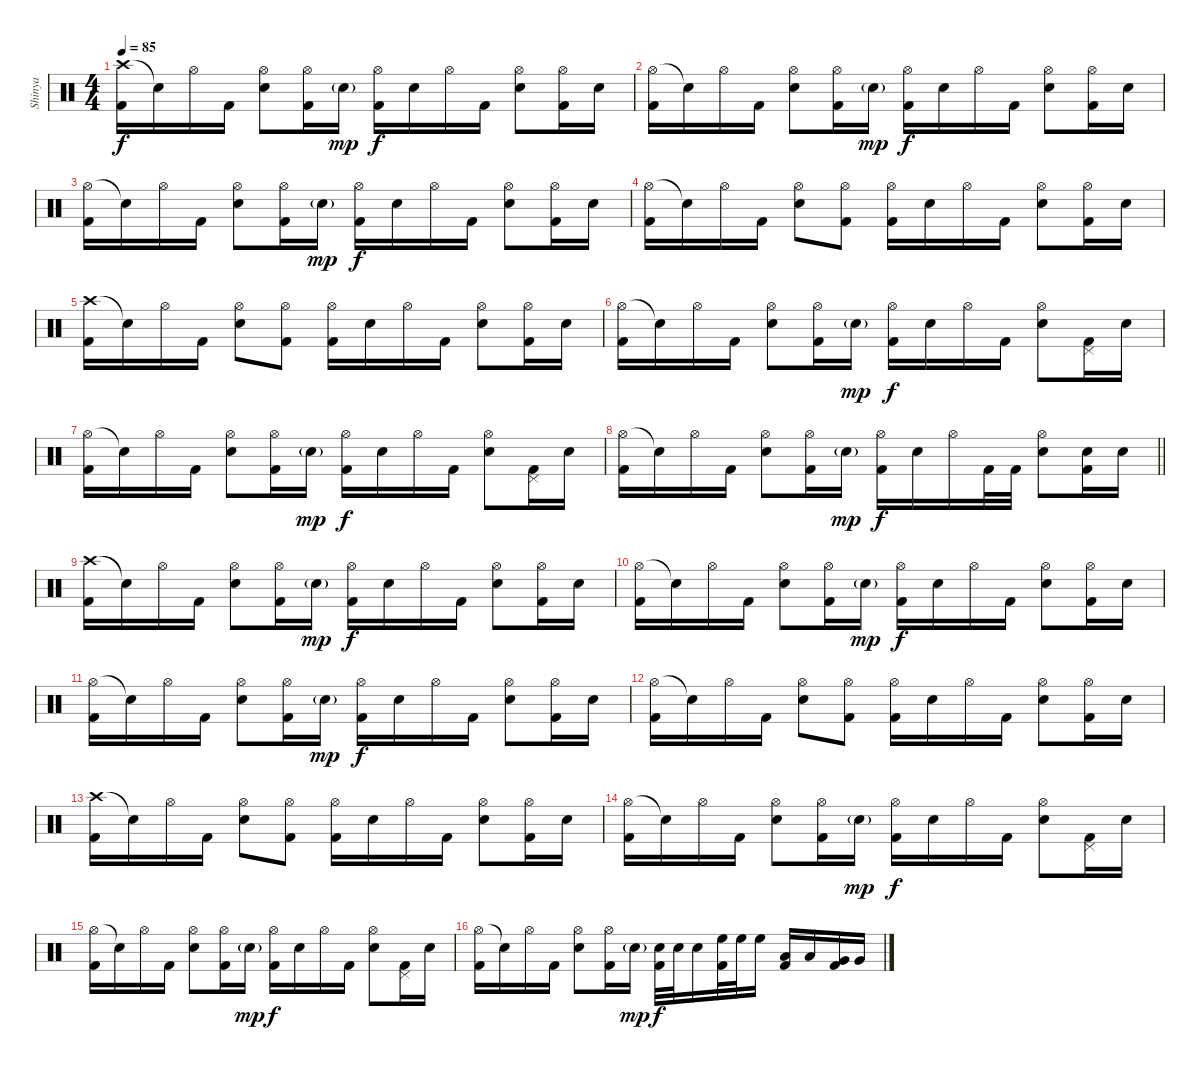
\track ("Shinya" "Shinya") {instrument percussion}
\staff {score}
\articulation defaults
\ts (4 4)
\tempo 85
\clef neutral
\ks c
("Crash high (hit)" "Kick (hit) 2").16{dy f} "Snare (hit)"{t}.16 "Hi-Hat (open)".16 "Kick (hit) 2".16 ("Hi-Hat (open)" "Electric Snare (hit)").8 ("Hi-Hat (open)" "Kick (hit) 2").16 "Electric Snare (hit)"{g}.16{dy mp} ("Hi-Hat (open)" "Kick (hit) 2").16{dy f} "Electric Snare (hit)".16 "Hi-Hat (open)".16 "Kick (hit) 2".16 ("Hi-Hat (open)" "Electric Snare (hit)").8 ("Hi-Hat (open)" "Kick (hit) 2").16 "Electric Snare (hit)".16 |
("Hi-Hat (open)" "Kick (hit) 2").16 "Snare (hit)"{t}.16 "Hi-Hat (open)".16 "Kick (hit) 2".16 ("Hi-Hat (open)" "Electric Snare (hit)").8 ("Hi-Hat (open)" "Kick (hit) 2").16 "Electric Snare (hit)"{g}.16{dy mp} ("Hi-Hat (open)" "Kick (hit) 2").16{dy f} "Electric Snare (hit)".16 "Hi-Hat (open)".16 "Kick (hit) 2".16 ("Hi-Hat (open)" "Electric Snare (hit)").8 ("Hi-Hat (open)" "Kick (hit) 2").16 "Electric Snare (hit)".16 |
("Hi-Hat (open)" "Kick (hit) 2").16 "Snare (hit)"{t}.16 "Hi-Hat (open)".16 "Kick (hit) 2".16 ("Hi-Hat (open)" "Electric Snare (hit)").8 ("Hi-Hat (open)" "Kick (hit) 2").16 "Electric Snare (hit)"{g}.16{dy mp} ("Hi-Hat (open)" "Kick (hit) 2").16{dy f} "Electric Snare (hit)".16 "Hi-Hat (open)".16 "Kick (hit) 2".16 ("Hi-Hat (open)" "Electric Snare (hit)").8 ("Hi-Hat (open)" "Kick (hit) 2").16 "Electric Snare (hit)".16 |
("Hi-Hat (open)" "Kick (hit) 2").16 "Snare (hit)"{t}.16 "Hi-Hat (open)".16 "Kick (hit) 2".16 ("Hi-Hat (open)" "Electric Snare (hit)").8 ("Hi-Hat (open)" "Kick (hit) 2").8 ("Hi-Hat (open)" "Kick (hit) 2").16 "Electric Snare (hit)".16 "Hi-Hat (open)".16 "Kick (hit) 2".16 ("Hi-Hat (open)" "Electric Snare (hit)").8 ("Hi-Hat (open)" "Kick (hit) 2").16 "Electric Snare (hit)".16 |
("Crash high (hit)" "Kick (hit) 2").16 "Snare (hit)"{t}.16 "Hi-Hat (open)".16 "Kick (hit) 2".16 ("Hi-Hat (open)" "Electric Snare (hit)").8 ("Hi-Hat (open)" "Kick (hit) 2").8 ("Hi-Hat (open)" "Kick (hit) 2").16 "Electric Snare (hit)".16 "Hi-Hat (open)".16 "Kick (hit) 2".16 ("Hi-Hat (open)" "Electric Snare (hit)").8 ("Hi-Hat (open)" "Kick (hit) 2").16 "Electric Snare (hit)".16 |
("Hi-Hat (open)" "Kick (hit) 2").16 "Snare (hit)"{t}.16 "Hi-Hat (open)".16 "Kick (hit) 2".16 ("Hi-Hat (open)" "Electric Snare (hit)").8 ("Hi-Hat (open)" "Kick (hit) 2").16 "Electric Snare (hit)"{g}.16{dy mp} ("Hi-Hat (open)" "Kick (hit) 2").16{dy f} "Electric Snare (hit)".16 "Hi-Hat (open)".16 "Kick (hit) 2".16 ("Hi-Hat (open)" "Electric Snare (hit)").8 ("Pedal Hi-Hat (hit)" "Kick (hit) 2").16 "Electric Snare (hit)".16 |
("Hi-Hat (open)" "Kick (hit) 2").16 "Snare (hit)"{t}.16 "Hi-Hat (open)".16 "Kick (hit) 2".16 ("Hi-Hat (open)" "Electric Snare (hit)").8 ("Hi-Hat (open)" "Kick (hit) 2").16 "Electric Snare (hit)"{g}.16{dy mp} ("Hi-Hat (open)" "Kick (hit) 2").16{dy f} "Electric Snare (hit)".16 "Hi-Hat (open)".16 "Kick (hit) 2".16 ("Hi-Hat (open)" "Electric Snare (hit)").8 ("Pedal Hi-Hat (hit)" "Kick (hit) 2").16 "Electric Snare (hit)".16 |
\barLineRight lightlight
("Hi-Hat (open)" "Kick (hit) 2").16 "Snare (hit)"{t}.16 "Hi-Hat (open)".16 "Kick (hit) 2".16 ("Hi-Hat (open)" "Electric Snare (hit)").8 ("Hi-Hat (open)" "Kick (hit) 2").16 "Electric Snare (hit)"{g}.16{dy mp} ("Hi-Hat (open)" "Kick (hit) 2").16{dy f} "Electric Snare (hit)".16 "Hi-Hat (open)".16 "Kick (hit) 2".32 "Kick (hit) 2".32 ("Hi-Hat (open)" "Electric Snare (hit)").8 ("Electric Snare (hit)" "Kick (hit) 2").16 "Electric Snare (hit)".16 |
("Crash high (hit)" "Kick (hit) 2").16 "Snare (hit)"{t}.16 "Hi-Hat (open)".16 "Kick (hit) 2".16 ("Hi-Hat (open)" "Electric Snare (hit)").8 ("Hi-Hat (open)" "Kick (hit) 2").16 "Electric Snare (hit)"{g}.16{dy mp} ("Hi-Hat (open)" "Kick (hit) 2").16{dy f} "Electric Snare (hit)".16 "Hi-Hat (open)".16 "Kick (hit) 2".16 ("Hi-Hat (open)" "Electric Snare (hit)").8 ("Hi-Hat (open)" "Kick (hit) 2").16 "Electric Snare (hit)".16 |
("Hi-Hat (open)" "Kick (hit) 2").16 "Snare (hit)"{t}.16 "Hi-Hat (open)".16 "Kick (hit) 2".16 ("Hi-Hat (open)" "Electric Snare (hit)").8 ("Hi-Hat (open)" "Kick (hit) 2").16 "Electric Snare (hit)"{g}.16{dy mp} ("Hi-Hat (open)" "Kick (hit) 2").16{dy f} "Electric Snare (hit)".16 "Hi-Hat (open)".16 "Kick (hit) 2".16 ("Hi-Hat (open)" "Electric Snare (hit)").8 ("Hi-Hat (open)" "Kick (hit) 2").16 "Electric Snare (hit)".16 |
("Hi-Hat (open)" "Kick (hit) 2").16 "Snare (hit)"{t}.16 "Hi-Hat (open)".16 "Kick (hit) 2".16 ("Hi-Hat (open)" "Electric Snare (hit)").8 ("Hi-Hat (open)" "Kick (hit) 2").16 "Electric Snare (hit)"{g}.16{dy mp} ("Hi-Hat (open)" "Kick (hit) 2").16{dy f} "Electric Snare (hit)".16 "Hi-Hat (open)".16 "Kick (hit) 2".16 ("Hi-Hat (open)" "Electric Snare (hit)").8 ("Hi-Hat (open)" "Kick (hit) 2").16 "Electric Snare (hit)".16 |
("Hi-Hat (open)" "Kick (hit) 2").16 "Snare (hit)"{t}.16 "Hi-Hat (open)".16 "Kick (hit) 2".16 ("Hi-Hat (open)" "Electric Snare (hit)").8 ("Hi-Hat (open)" "Kick (hit) 2").8 ("Hi-Hat (open)" "Kick (hit) 2").16 "Electric Snare (hit)".16 "Hi-Hat (open)".16 "Kick (hit) 2".16 ("Hi-Hat (open)" "Electric Snare (hit)").8 ("Hi-Hat (open)" "Kick (hit) 2").16 "Electric Snare (hit)".16 |
("Crash high (hit)" "Kick (hit) 2").16 "Snare (hit)"{t}.16 "Hi-Hat (open)".16 "Kick (hit) 2".16 ("Hi-Hat (open)" "Electric Snare (hit)").8 ("Hi-Hat (open)" "Kick (hit) 2").8 ("Hi-Hat (open)" "Kick (hit) 2").16 "Electric Snare (hit)".16 "Hi-Hat (open)".16 "Kick (hit) 2".16 ("Hi-Hat (open)" "Electric Snare (hit)").8 ("Hi-Hat (open)" "Kick (hit) 2").16 "Electric Snare (hit)".16 |
("Hi-Hat (open)" "Kick (hit) 2").16 "Snare (hit)"{t}.16 "Hi-Hat (open)".16 "Kick (hit) 2".16 ("Hi-Hat (open)" "Electric Snare (hit)").8 ("Hi-Hat (open)" "Kick (hit) 2").16 "Electric Snare (hit)"{g}.16{dy mp} ("Hi-Hat (open)" "Kick (hit) 2").16{dy f} "Electric Snare (hit)".16 "Hi-Hat (open)".16 "Kick (hit) 2".16 ("Hi-Hat (open)" "Electric Snare (hit)").8 ("Pedal Hi-Hat (hit)" "Kick (hit) 2").16 "Electric Snare (hit)".16 |
("Hi-Hat (open)" "Kick (hit) 2").16 "Snare (hit)"{t}.16 "Hi-Hat (open)".16 "Kick (hit) 2".16 ("Hi-Hat (open)" "Electric Snare (hit)").8 ("Hi-Hat (open)" "Kick (hit) 2").16 "Electric Snare (hit)"{g}.16{dy mp} ("Hi-Hat (open)" "Kick (hit) 2").16{dy f} "Electric Snare (hit)".16 "Hi-Hat (open)".16 "Kick (hit) 2".16 ("Hi-Hat (open)" "Electric Snare (hit)").8 ("Pedal Hi-Hat (hit)" "Kick (hit) 2").16 "Electric Snare (hit)".16 |
("Hi-Hat (open)" "Kick (hit) 2").16 "Snare (hit)"{t}.16 "Hi-Hat (open)".16 "Kick (hit) 2".16 ("Hi-Hat (open)" "Electric Snare (hit)").8 ("Hi-Hat (open)" "Kick (hit) 2").16 "Electric Snare (hit)"{g}.16{dy mp} ("Electric Snare (hit)" "Kick (hit) 2").32{dy f} "Electric Snare (hit)".32 "Electric Snare (hit)".16 ("High Floor Tom (hit)" "Kick (hit) 2").32 "High Floor Tom (hit)".32 "High Floor Tom (hit)".16 ("Low Tom (hit)" "Kick (hit) 2").16 "Low Tom (hit)".16 ("Very Low Tom (hit)" "Kick (hit) 2").16 "Very Low Tom (hit)".16
